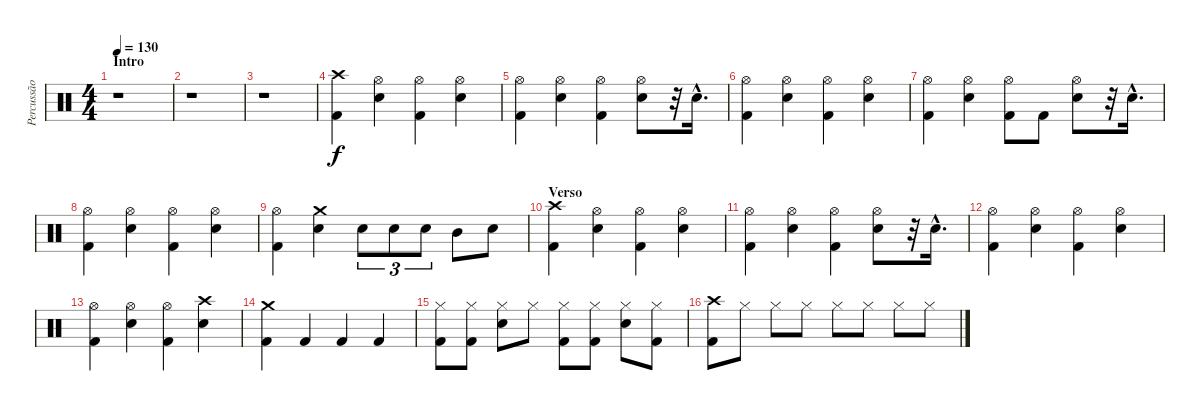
\track ("Percussão" "Percussão") {instrument percussion}
\staff {score}
\articulation defaults
\ts (4 4)
\section ("" "Intro")
\tempo 130
\clef neutral
\ks c
r.1{dy f} |
r.1 |
r.1 |
("Crash high (hit)" "Kick (hit) 2").4 ("Hi-Hat (open)" "Electric Snare (hit)").4 ("Hi-Hat (open)" "Kick (hit) 2").4 ("Hi-Hat (open)" "Electric Snare (hit)").4 |
("Hi-Hat (open)" "Kick (hit) 2").4 ("Hi-Hat (open)" "Electric Snare (hit)").4 ("Hi-Hat (open)" "Kick (hit) 2").4 ("Hi-Hat (open)" "Electric Snare (hit)").8 r.32 "Electric Snare (hit)"{hac}.16{d} |
("Hi-Hat (open)" "Kick (hit) 2").4 ("Hi-Hat (open)" "Electric Snare (hit)").4 ("Hi-Hat (open)" "Kick (hit) 2").4 ("Hi-Hat (open)" "Electric Snare (hit)").4 |
("Hi-Hat (open)" "Kick (hit) 2").4 ("Hi-Hat (open)" "Electric Snare (hit)").4 ("Hi-Hat (open)" "Kick (hit) 2").8 "Kick (hit) 2".8 ("Hi-Hat (open)" "Electric Snare (hit)").8 r.32 "Electric Snare (hit)"{hac}.16{d} |
("Hi-Hat (open)" "Kick (hit) 2").4 ("Hi-Hat (open)" "Electric Snare (hit)").4 ("Hi-Hat (open)" "Kick (hit) 2").4 ("Hi-Hat (open)" "Electric Snare (hit)").4 |
("Hi-Hat (open)" "Kick (hit) 2").4 ("Crash medium (hit)" "Electric Snare (hit)").4 "Electric Snare (hit)".8{tu (3 2)} "Electric Snare (hit)".8{tu (3 2)} "Electric Snare (hit)".8{tu (3 2)} "Mid Tom (hit)".8 "Electric Snare (hit)".8 |
\section ("" "Verso")
("Crash high (hit)" "Kick (hit) 2").4 ("Hi-Hat (open)" "Electric Snare (hit)").4 ("Hi-Hat (open)" "Kick (hit) 2").4 ("Hi-Hat (open)" "Electric Snare (hit)").4 |
("Hi-Hat (open)" "Kick (hit) 2").4 ("Hi-Hat (open)" "Electric Snare (hit)").4 ("Hi-Hat (open)" "Kick (hit) 2").4 ("Hi-Hat (open)" "Electric Snare (hit)").8 r.32 "Electric Snare (hit)"{hac}.16{d} |
("Hi-Hat (open)" "Kick (hit) 2").4 ("Hi-Hat (open)" "Electric Snare (hit)").4 ("Hi-Hat (open)" "Kick (hit) 2").4 ("Hi-Hat (open)" "Electric Snare (hit)").4 |
("Hi-Hat (open)" "Kick (hit) 2").4 ("Hi-Hat (open)" "Electric Snare (hit)").4 ("Hi-Hat (open)" "Kick (hit) 2").4 ("Crash high (hit)" "Electric Snare (hit)").4 |
("Crash medium (hit)" "Kick (hit) 2").4 "Kick (hit) 2".4 "Kick (hit) 2".4 "Kick (hit) 2".4 |
("Hi-Hat (closed)" "Kick (hit) 2").8 ("Hi-Hat (closed)" "Kick (hit) 2").8 ("Hi-Hat (closed)" "Electric Snare (hit)").8 "Hi-Hat (closed)".8 ("Hi-Hat (closed)" "Kick (hit) 2").8 ("Hi-Hat (closed)" "Kick (hit) 2").8 ("Hi-Hat (closed)" "Electric Snare (hit)").8 ("Hi-Hat (closed)" "Kick (hit) 2").8 |
("Crash high (hit)" "Kick (hit) 2").8 "Hi-Hat (closed)".8 "Hi-Hat (closed)".8 "Hi-Hat (closed)".8 "Hi-Hat (closed)".8 "Hi-Hat (closed)".8 "Hi-Hat (closed)".8 "Hi-Hat (closed)".8
